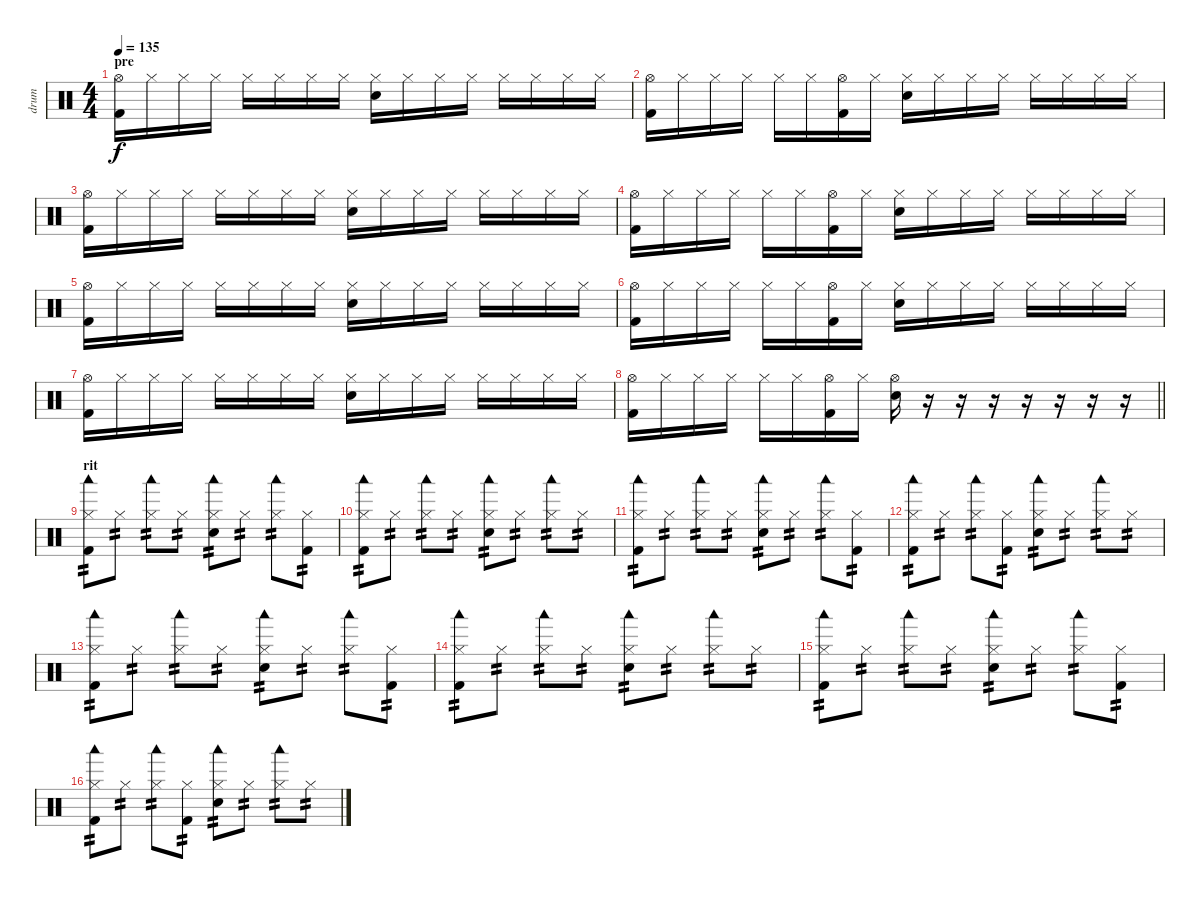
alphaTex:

\track ("drum" "drum") {instrument percussion}
\staff {score}
\articulation defaults
\ts (4 4)
\section ("" "pre")
\tempo 135
\clef neutral
\ks c
("Hi-Hat (open)" "Kick (hit) 2").16{dy f} "Hi-Hat (closed)".16 "Hi-Hat (closed)".16 "Hi-Hat (closed)".16 "Hi-Hat (closed)".16 "Hi-Hat (closed)".16 "Hi-Hat (closed)".16 "Hi-Hat (closed)".16 ("Hi-Hat (closed)" "Snare (hit) 2").16 "Hi-Hat (closed)".16 "Hi-Hat (closed)".16 "Hi-Hat (closed)".16 "Hi-Hat (closed)".16 "Hi-Hat (closed)".16 "Hi-Hat (closed)".16 "Hi-Hat (closed)".16 |
("Hi-Hat (open)" "Kick (hit) 2").16 "Hi-Hat (closed)".16 "Hi-Hat (closed)".16 "Hi-Hat (closed)".16 "Hi-Hat (closed)".16 "Hi-Hat (closed)".16 ("Hi-Hat (open)" "Kick (hit) 2").16 "Hi-Hat (closed)".16 ("Hi-Hat (closed)" "Snare (hit) 2").16 "Hi-Hat (closed)".16 "Hi-Hat (closed)".16 "Hi-Hat (closed)".16 "Hi-Hat (closed)".16 "Hi-Hat (closed)".16 "Hi-Hat (closed)".16 "Hi-Hat (closed)".16 |
("Hi-Hat (open)" "Kick (hit) 2").16 "Hi-Hat (closed)".16 "Hi-Hat (closed)".16 "Hi-Hat (closed)".16 "Hi-Hat (closed)".16 "Hi-Hat (closed)".16 "Hi-Hat (closed)".16 "Hi-Hat (closed)".16 ("Hi-Hat (closed)" "Snare (hit) 2").16 "Hi-Hat (closed)".16 "Hi-Hat (closed)".16 "Hi-Hat (closed)".16 "Hi-Hat (closed)".16 "Hi-Hat (closed)".16 "Hi-Hat (closed)".16 "Hi-Hat (closed)".16 |
("Hi-Hat (open)" "Kick (hit) 2").16 "Hi-Hat (closed)".16 "Hi-Hat (closed)".16 "Hi-Hat (closed)".16 "Hi-Hat (closed)".16 "Hi-Hat (closed)".16 ("Hi-Hat (open)" "Kick (hit) 2").16 "Hi-Hat (closed)".16 ("Hi-Hat (closed)" "Snare (hit) 2").16 "Hi-Hat (closed)".16 "Hi-Hat (closed)".16 "Hi-Hat (closed)".16 "Hi-Hat (closed)".16 "Hi-Hat (closed)".16 "Hi-Hat (closed)".16 "Hi-Hat (closed)".16 |
("Hi-Hat (open)" "Kick (hit) 2").16 "Hi-Hat (closed)".16 "Hi-Hat (closed)".16 "Hi-Hat (closed)".16 "Hi-Hat (closed)".16 "Hi-Hat (closed)".16 "Hi-Hat (closed)".16 "Hi-Hat (closed)".16 ("Hi-Hat (closed)" "Snare (hit) 2").16 "Hi-Hat (closed)".16 "Hi-Hat (closed)".16 "Hi-Hat (closed)".16 "Hi-Hat (closed)".16 "Hi-Hat (closed)".16 "Hi-Hat (closed)".16 "Hi-Hat (closed)".16 |
("Hi-Hat (open)" "Kick (hit) 2").16 "Hi-Hat (closed)".16 "Hi-Hat (closed)".16 "Hi-Hat (closed)".16 "Hi-Hat (closed)".16 "Hi-Hat (closed)".16 ("Hi-Hat (open)" "Kick (hit) 2").16 "Hi-Hat (closed)".16 ("Hi-Hat (closed)" "Snare (hit) 2").16 "Hi-Hat (closed)".16 "Hi-Hat (closed)".16 "Hi-Hat (closed)".16 "Hi-Hat (closed)".16 "Hi-Hat (closed)".16 "Hi-Hat (closed)".16 "Hi-Hat (closed)".16 |
("Hi-Hat (open)" "Kick (hit) 2").16 "Hi-Hat (closed)".16 "Hi-Hat (closed)".16 "Hi-Hat (closed)".16 "Hi-Hat (closed)".16 "Hi-Hat (closed)".16 "Hi-Hat (closed)".16 "Hi-Hat (closed)".16 ("Hi-Hat (closed)" "Snare (hit) 2").16 "Hi-Hat (closed)".16 "Hi-Hat (closed)".16 "Hi-Hat (closed)".16 "Hi-Hat (closed)".16 "Hi-Hat (closed)".16 "Hi-Hat (closed)".16 "Hi-Hat (closed)".16 |
\barLineRight lightlight
("Hi-Hat (open)" "Kick (hit) 2").16 "Hi-Hat (closed)".16 "Hi-Hat (closed)".16 "Hi-Hat (closed)".16 "Hi-Hat (closed)".16 "Hi-Hat (closed)".16 ("Hi-Hat (open)" "Kick (hit) 2").16 "Hi-Hat (closed)".16 ("Hi-Hat (open)" "Snare (hit) 2").16 r.16 r.16 r.16 r.16 r.16 r.16 r.16 |
\section ("" "rit")
("Hi-Hat (closed)" "Woodblock low (hit)" "Kick (hit) 2").8{tp 2} "Hi-Hat (closed)".8{tp 2} ("Hi-Hat (closed)" "Woodblock low (hit)").8{tp 2} "Hi-Hat (closed)".8{tp 2} ("Hi-Hat (closed)" "Woodblock low (hit)" "Snare (hit) 2").8{tp 2} "Hi-Hat (closed)".8{tp 2} ("Hi-Hat (closed)" "Woodblock low (hit)").8{tp 2} ("Hi-Hat (closed)" "Kick (hit) 2").8{tp 2} |
("Hi-Hat (closed)" "Woodblock low (hit)" "Kick (hit) 2").8{tp 2} "Hi-Hat (closed)".8{tp 2} ("Hi-Hat (closed)" "Woodblock low (hit)").8{tp 2} "Hi-Hat (closed)".8{tp 2} ("Hi-Hat (closed)" "Woodblock low (hit)" "Snare (hit) 2").8{tp 2} "Hi-Hat (closed)".8{tp 2} ("Hi-Hat (closed)" "Woodblock low (hit)").8{tp 2} "Hi-Hat (closed)".8{tp 2} |
("Hi-Hat (closed)" "Woodblock low (hit)" "Kick (hit) 2").8{tp 2} "Hi-Hat (closed)".8{tp 2} ("Hi-Hat (closed)" "Woodblock low (hit)").8{tp 2} "Hi-Hat (closed)".8{tp 2} ("Hi-Hat (closed)" "Woodblock low (hit)" "Snare (hit) 2").8{tp 2} "Hi-Hat (closed)".8{tp 2} ("Hi-Hat (closed)" "Woodblock low (hit)").8{tp 2} ("Hi-Hat (closed)" "Kick (hit) 2").8{tp 2} |
("Hi-Hat (closed)" "Woodblock low (hit)" "Kick (hit) 2").8{tp 2} "Hi-Hat (closed)".8{tp 2} ("Hi-Hat (closed)" "Woodblock low (hit)").8{tp 2} ("Hi-Hat (closed)" "Kick (hit) 2").8{tp 2} ("Hi-Hat (closed)" "Woodblock low (hit)" "Snare (hit) 2").8{tp 2} "Hi-Hat (closed)".8{tp 2} ("Hi-Hat (closed)" "Woodblock low (hit)").8{tp 2} "Hi-Hat (closed)".8{tp 2} |
("Hi-Hat (closed)" "Woodblock low (hit)" "Kick (hit) 2").8{tp 2} "Hi-Hat (closed)".8{tp 2} ("Hi-Hat (closed)" "Woodblock low (hit)").8{tp 2} "Hi-Hat (closed)".8{tp 2} ("Hi-Hat (closed)" "Woodblock low (hit)" "Snare (hit) 2").8{tp 2} "Hi-Hat (closed)".8{tp 2} ("Hi-Hat (closed)" "Woodblock low (hit)").8{tp 2} ("Hi-Hat (closed)" "Kick (hit) 2").8{tp 2} |
("Hi-Hat (closed)" "Woodblock low (hit)" "Kick (hit) 2").8{tp 2} "Hi-Hat (closed)".8{tp 2} ("Hi-Hat (closed)" "Woodblock low (hit)").8{tp 2} "Hi-Hat (closed)".8{tp 2} ("Hi-Hat (closed)" "Woodblock low (hit)" "Snare (hit) 2").8{tp 2} "Hi-Hat (closed)".8{tp 2} ("Hi-Hat (closed)" "Woodblock low (hit)").8{tp 2} "Hi-Hat (closed)".8{tp 2} |
("Hi-Hat (closed)" "Woodblock low (hit)" "Kick (hit) 2").8{tp 2} "Hi-Hat (closed)".8{tp 2} ("Hi-Hat (closed)" "Woodblock low (hit)").8{tp 2} "Hi-Hat (closed)".8{tp 2} ("Hi-Hat (closed)" "Woodblock low (hit)" "Snare (hit) 2").8{tp 2} "Hi-Hat (closed)".8{tp 2} ("Hi-Hat (closed)" "Woodblock low (hit)").8{tp 2} ("Hi-Hat (closed)" "Kick (hit) 2").8{tp 2} |
("Hi-Hat (closed)" "Woodblock low (hit)" "Kick (hit) 2").8{tp 2} "Hi-Hat (closed)".8{tp 2} ("Hi-Hat (closed)" "Woodblock low (hit)").8{tp 2} ("Hi-Hat (closed)" "Kick (hit) 2").8{tp 2} ("Hi-Hat (closed)" "Woodblock low (hit)" "Snare (hit) 2").8{tp 2} "Hi-Hat (closed)".8{tp 2} ("Hi-Hat (closed)" "Woodblock low (hit)").8{tp 2} "Hi-Hat (closed)".8{tp 2}
